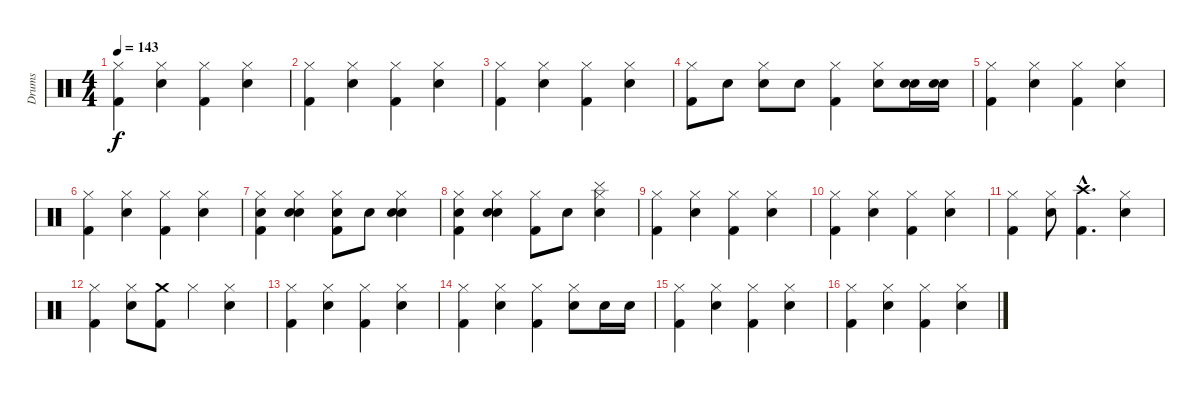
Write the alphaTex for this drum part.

\track ("Drums" "Drums") {instrument percussion}
\staff {score}
\articulation defaults
\ts (4 4)
\tempo 143
\clef neutral
\ks c
("Hi-Hat (closed)" "Kick (hit) 2").4{dy f} ("Hi-Hat (closed)" "Electric Snare (hit)").4 ("Hi-Hat (closed)" "Kick (hit) 2").4 ("Hi-Hat (closed)" "Electric Snare (hit)").4 |
("Hi-Hat (closed)" "Kick (hit) 2").4 ("Hi-Hat (closed)" "Electric Snare (hit)").4 ("Hi-Hat (closed)" "Kick (hit) 2").4 ("Hi-Hat (closed)" "Electric Snare (hit)").4 |
("Hi-Hat (closed)" "Kick (hit) 2").4 ("Hi-Hat (closed)" "Electric Snare (hit)").4 ("Hi-Hat (closed)" "Kick (hit) 2").4 ("Hi-Hat (closed)" "Electric Snare (hit)").4 |
("Hi-Hat (closed)" "Kick (hit) 2").8 "Electric Snare (hit)".8 ("Hi-Hat (closed)" "Electric Snare (hit)").8 "Electric Snare (hit)".8 ("Hi-Hat (closed)" "Kick (hit) 2").4 ("Hi-Hat (closed)" "Electric Snare (hit)").8 ("Electric Snare (hit)" "Electric Snare (hit)").16 ("Snare (hit) 2" "Snare (hit) 2").16 |
("Hi-Hat (closed)" "Kick (hit) 2").4 ("Hi-Hat (closed)" "Electric Snare (hit)").4 ("Hi-Hat (closed)" "Kick (hit) 2").4 ("Hi-Hat (closed)" "Electric Snare (hit)").4 |
("Hi-Hat (closed)" "Kick (hit) 2").4 ("Hi-Hat (closed)" "Electric Snare (hit)").4 ("Hi-Hat (closed)" "Kick (hit) 2").4 ("Hi-Hat (closed)" "Electric Snare (hit)").4 |
("Hand Clap (hit)" "Hi-Hat (closed)" "Kick (hit) 2").4 ("Hand Clap (hit)" "Hi-Hat (closed)" "Electric Snare (hit)").4 ("Hand Clap (hit)" "Hi-Hat (closed)" "Kick (hit) 2").8 "Hand Clap (hit)".8 ("Hand Clap (hit)" "Hi-Hat (closed)" "Electric Snare (hit)").4 |
("Hand Clap (hit)" "Hi-Hat (closed)" "Kick (hit) 2").4 ("Hand Clap (hit)" "Hi-Hat (closed)" "Electric Snare (hit)").4 ("Hi-Hat (closed)" "Kick (hit) 2").8 "Hand Clap (hit)".8 ("Hand Clap (hit)" "Hi-Hat (closed)" "Cymbal (hit)").4 |
("Hi-Hat (closed)" "Kick (hit) 2").4 ("Hi-Hat (closed)" "Electric Snare (hit)").4 ("Hi-Hat (closed)" "Kick (hit) 2").4 ("Hi-Hat (closed)" "Electric Snare (hit)").4 |
("Hi-Hat (closed)" "Kick (hit) 2").4 ("Hi-Hat (closed)" "Electric Snare (hit)").4 ("Hi-Hat (closed)" "Kick (hit) 2").4 ("Hi-Hat (closed)" "Electric Snare (hit)").4 |
("Hi-Hat (closed)" "Kick (hit) 2").4 ("Hi-Hat (closed)" "Electric Snare (hit)").8 ("Crash high (hit)"{hac} "Kick (hit) 2"{hac}).4{d} ("Hi-Hat (closed)" "Electric Snare (hit)").4 |
("Hi-Hat (closed)" "Kick (hit) 2").4 ("Hi-Hat (closed)" "Electric Snare (hit)").8 ("Crash medium (hit)" "Kick (hit) 2").8 "Hi-Hat (closed)".4 ("Hi-Hat (closed)" "Electric Snare (hit)").4 |
("Hi-Hat (closed)" "Kick (hit) 2").4 ("Hi-Hat (closed)" "Electric Snare (hit)").4 ("Hi-Hat (closed)" "Kick (hit) 2").4 ("Hi-Hat (closed)" "Electric Snare (hit)").4 |
("Hi-Hat (closed)" "Kick (hit) 2").4 ("Hi-Hat (closed)" "Electric Snare (hit)").4 ("Hi-Hat (closed)" "Kick (hit) 2").4 ("Hi-Hat (closed)" "Electric Snare (hit)").8 "Electric Snare (hit)".16 "Electric Snare (hit)".16 |
("Hi-Hat (closed)" "Kick (hit) 2").4 ("Hi-Hat (closed)" "Electric Snare (hit)").4 ("Hi-Hat (closed)" "Kick (hit) 2").4 ("Hi-Hat (closed)" "Electric Snare (hit)").4 |
("Hi-Hat (closed)" "Kick (hit) 2").4 ("Hi-Hat (closed)" "Electric Snare (hit)").4 ("Hi-Hat (closed)" "Kick (hit) 2").4 ("Hi-Hat (closed)" "Electric Snare (hit)").4
